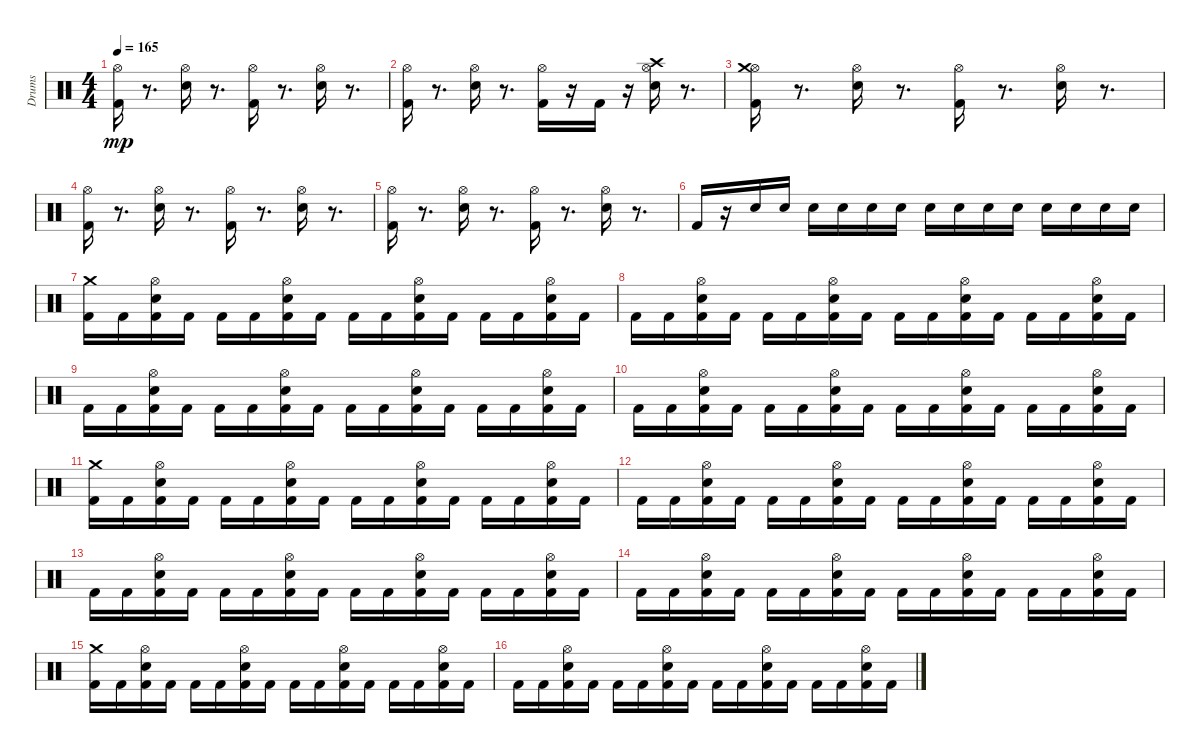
\track ("Drums" "Drums") {instrument percussion}
\staff {score}
\articulation defaults
\ts (4 4)
\tempo 165
\clef neutral
\ks c
("Hi-Hat (open)" "Kick (hit) 2").16{dy mp} r.8{d} ("Electric Snare (hit)" "Hi-Hat (open)").16 r.8{d} ("Hi-Hat (open)" "Kick (hit) 2").16 r.8{d} ("Electric Snare (hit)" "Hi-Hat (open)").16 r.8{d} |
("Hi-Hat (open)" "Kick (hit) 2").16 r.8{d} ("Hi-Hat (open)" "Electric Snare (hit)").16 r.8{d} ("Hi-Hat (open)" "Kick (hit) 2").16 r.16 "Kick (hit) 2".16 r.16 ("Hi-Hat (open)" "Crash high (hit)" "Electric Snare (hit)").16 r.8{d} |
("Hi-Hat (open)" "Crash medium (hit)" "Kick (hit) 2").16 r.8{d} ("Electric Snare (hit)" "Hi-Hat (open)").16 r.8{d} ("Kick (hit) 2" "Hi-Hat (open)").16 r.8{d} ("Electric Snare (hit)" "Hi-Hat (open)").16 r.8{d} |
("Hi-Hat (open)" "Kick (hit) 2").16 r.8{d} ("Electric Snare (hit)" "Hi-Hat (open)").16 r.8{d} ("Hi-Hat (open)" "Kick (hit) 2").16 r.8{d} ("Hi-Hat (open)" "Electric Snare (hit)").16 r.8{d} |
("Kick (hit) 2" "Hi-Hat (open)").16 r.8{d} ("Electric Snare (hit)" "Hi-Hat (open)").16 r.8{d} ("Hi-Hat (open)" "Kick (hit) 2").16 r.8{d} ("Hi-Hat (open)" "Electric Snare (hit)").16 r.8{d} |
"Kick (hit) 2".16 r.16 "Electric Snare (hit)".16 "Electric Snare (hit)".16 "Electric Snare (hit)".16 "Electric Snare (hit)".16 "Electric Snare (hit)".16 "Electric Snare (hit)".16 "Electric Snare (hit)".16 "Electric Snare (hit)".16 "Electric Snare (hit)".16 "Electric Snare (hit)".16 "Electric Snare (hit)".16 "Electric Snare (hit)".16 "Electric Snare (hit)".16 "Electric Snare (hit)".16 |
("Crash medium (hit)" "Kick (hit) 2").16 "Kick (hit) 2".16 ("Hi-Hat (open)" "Electric Snare (hit)" "Kick (hit) 2").16 "Kick (hit) 2".16 "Kick (hit) 2".16 "Kick (hit) 2".16 ("Electric Snare (hit)" "Kick (hit) 2" "Hi-Hat (open)").16 "Kick (hit) 2".16 "Kick (hit) 2".16 "Kick (hit) 2".16 ("Hi-Hat (open)" "Electric Snare (hit)" "Kick (hit) 2").16 "Kick (hit) 2".16 "Kick (hit) 2".16 "Kick (hit) 2".16 ("Electric Snare (hit)" "Kick (hit) 2" "Hi-Hat (open)").16 "Kick (hit) 2".16 |
"Kick (hit) 2".16 "Kick (hit) 2".16 ("Electric Snare (hit)" "Hi-Hat (open)" "Kick (hit) 2").16 "Kick (hit) 2".16 "Kick (hit) 2".16 "Kick (hit) 2".16 ("Hi-Hat (open)" "Kick (hit) 2" "Electric Snare (hit)").16 "Kick (hit) 2".16 "Kick (hit) 2".16 "Kick (hit) 2".16 ("Electric Snare (hit)" "Kick (hit) 2" "Hi-Hat (open)").16 "Kick (hit) 2".16 "Kick (hit) 2".16 "Kick (hit) 2".16 ("Hi-Hat (open)" "Electric Snare (hit)" "Kick (hit) 2").16 "Kick (hit) 2".16 |
"Kick (hit) 2".16 "Kick (hit) 2".16 ("Kick (hit) 2" "Electric Snare (hit)" "Hi-Hat (open)").16 "Kick (hit) 2".16 "Kick (hit) 2".16 "Kick (hit) 2".16 ("Hi-Hat (open)" "Kick (hit) 2" "Electric Snare (hit)").16 "Kick (hit) 2".16 "Kick (hit) 2".16 "Kick (hit) 2".16 ("Kick (hit) 2" "Electric Snare (hit)" "Hi-Hat (open)").16 "Kick (hit) 2".16 "Kick (hit) 2".16 "Kick (hit) 2".16 ("Hi-Hat (open)" "Electric Snare (hit)" "Kick (hit) 2").16 "Kick (hit) 2".16 |
"Kick (hit) 2".16 "Kick (hit) 2".16 ("Electric Snare (hit)" "Hi-Hat (open)" "Kick (hit) 2").16 "Kick (hit) 2".16 "Kick (hit) 2".16 "Kick (hit) 2".16 ("Electric Snare (hit)" "Hi-Hat (open)" "Kick (hit) 2").16 "Kick (hit) 2".16 "Kick (hit) 2".16 "Kick (hit) 2".16 ("Kick (hit) 2" "Electric Snare (hit)" "Hi-Hat (open)").16 "Kick (hit) 2".16 "Kick (hit) 2".16 "Kick (hit) 2".16 ("Hi-Hat (open)" "Electric Snare (hit)" "Kick (hit) 2").16 "Kick (hit) 2".16 |
("Crash medium (hit)" "Kick (hit) 2").16 "Kick (hit) 2".16 ("Kick (hit) 2" "Electric Snare (hit)" "Hi-Hat (open)").16 "Kick (hit) 2".16 "Kick (hit) 2".16 "Kick (hit) 2".16 ("Kick (hit) 2" "Electric Snare (hit)" "Hi-Hat (open)").16 "Kick (hit) 2".16 "Kick (hit) 2".16 "Kick (hit) 2".16 ("Electric Snare (hit)" "Hi-Hat (open)" "Kick (hit) 2").16 "Kick (hit) 2".16 "Kick (hit) 2".16 "Kick (hit) 2".16 ("Kick (hit) 2" "Hi-Hat (open)" "Electric Snare (hit)").16 "Kick (hit) 2".16 |
"Kick (hit) 2".16 "Kick (hit) 2".16 ("Kick (hit) 2" "Hi-Hat (open)" "Electric Snare (hit)").16 "Kick (hit) 2".16 "Kick (hit) 2".16 "Kick (hit) 2".16 ("Kick (hit) 2" "Electric Snare (hit)" "Hi-Hat (open)").16 "Kick (hit) 2".16 "Kick (hit) 2".16 "Kick (hit) 2".16 ("Kick (hit) 2" "Hi-Hat (open)" "Electric Snare (hit)").16 "Kick (hit) 2".16 "Kick (hit) 2".16 "Kick (hit) 2".16 ("Electric Snare (hit)" "Hi-Hat (open)" "Kick (hit) 2").16 "Kick (hit) 2".16 |
"Kick (hit) 2".16 "Kick (hit) 2".16 ("Electric Snare (hit)" "Kick (hit) 2" "Hi-Hat (open)").16 "Kick (hit) 2".16 "Kick (hit) 2".16 "Kick (hit) 2".16 ("Electric Snare (hit)" "Hi-Hat (open)" "Kick (hit) 2").16 "Kick (hit) 2".16 "Kick (hit) 2".16 "Kick (hit) 2".16 ("Hi-Hat (open)" "Electric Snare (hit)" "Kick (hit) 2").16 "Kick (hit) 2".16 "Kick (hit) 2".16 "Kick (hit) 2".16 ("Electric Snare (hit)" "Hi-Hat (open)" "Kick (hit) 2").16 "Kick (hit) 2".16 |
"Kick (hit) 2".16 "Kick (hit) 2".16 ("Kick (hit) 2" "Hi-Hat (open)" "Electric Snare (hit)").16 "Kick (hit) 2".16 "Kick (hit) 2".16 "Kick (hit) 2".16 ("Hi-Hat (open)" "Electric Snare (hit)" "Kick (hit) 2").16 "Kick (hit) 2".16 "Kick (hit) 2".16 "Kick (hit) 2".16 ("Electric Snare (hit)" "Kick (hit) 2" "Hi-Hat (open)").16 "Kick (hit) 2".16 "Kick (hit) 2".16 "Kick (hit) 2".16 ("Hi-Hat (open)" "Electric Snare (hit)" "Kick (hit) 2").16 "Kick (hit) 2".16 |
("Kick (hit) 2" "Crash medium (hit)").16 "Kick (hit) 2".16 ("Kick (hit) 2" "Electric Snare (hit)" "Hi-Hat (open)").16 "Kick (hit) 2".16 "Kick (hit) 2".16 "Kick (hit) 2".16 ("Electric Snare (hit)" "Hi-Hat (open)" "Kick (hit) 2").16 "Kick (hit) 2".16 "Kick (hit) 2".16 "Kick (hit) 2".16 ("Electric Snare (hit)" "Kick (hit) 2" "Hi-Hat (open)").16 "Kick (hit) 2".16 "Kick (hit) 2".16 "Kick (hit) 2".16 ("Kick (hit) 2" "Electric Snare (hit)" "Hi-Hat (open)").16 "Kick (hit) 2".16 |
"Kick (hit) 2".16 "Kick (hit) 2".16 ("Hi-Hat (open)" "Electric Snare (hit)" "Kick (hit) 2").16 "Kick (hit) 2".16 "Kick (hit) 2".16 "Kick (hit) 2".16 ("Electric Snare (hit)" "Kick (hit) 2" "Hi-Hat (open)").16 "Kick (hit) 2".16 "Kick (hit) 2".16 "Kick (hit) 2".16 ("Electric Snare (hit)" "Hi-Hat (open)" "Kick (hit) 2").16 "Kick (hit) 2".16 "Kick (hit) 2".16 "Kick (hit) 2".16 ("Electric Snare (hit)" "Kick (hit) 2" "Hi-Hat (open)").16 "Kick (hit) 2".16
